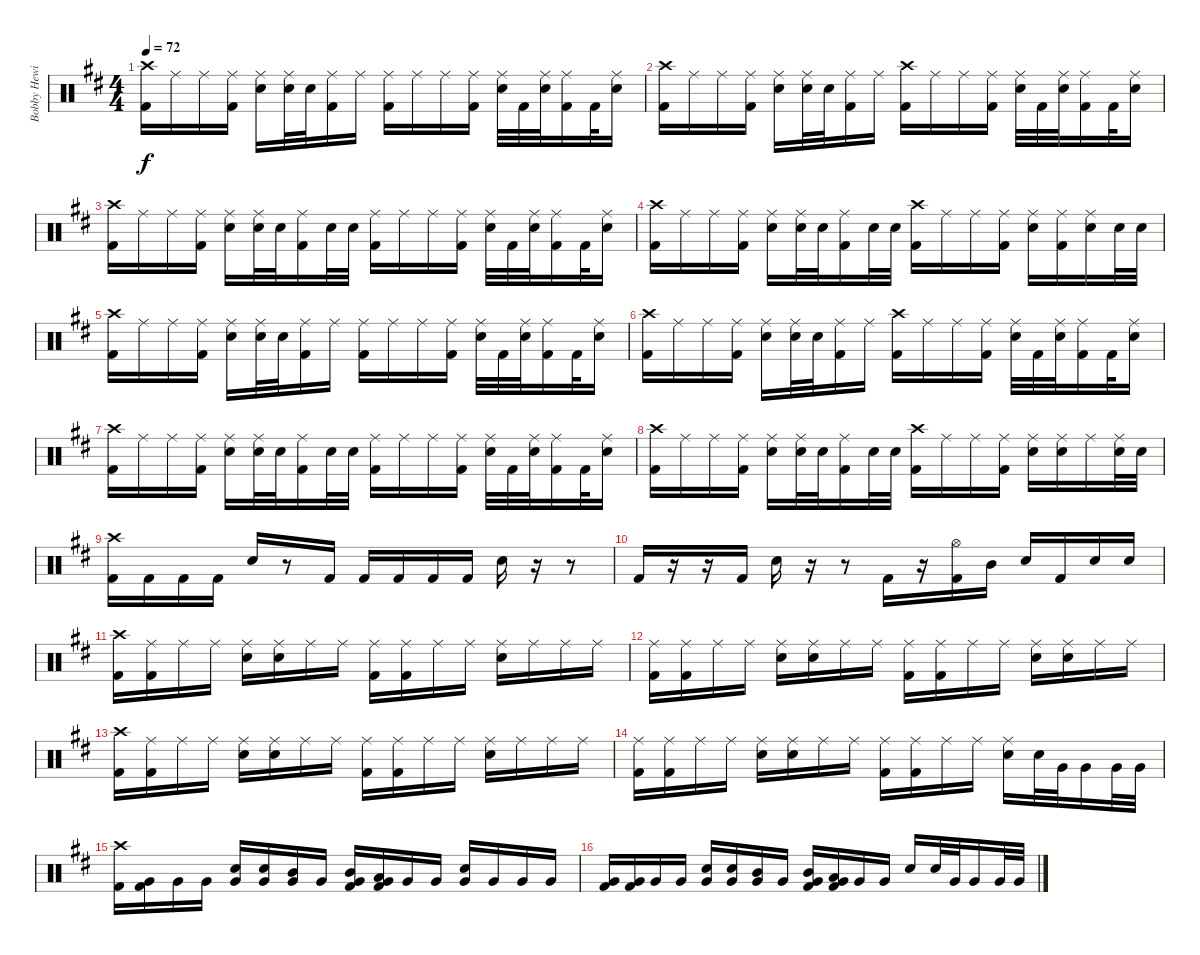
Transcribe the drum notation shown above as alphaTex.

\track ("Bobby Hewitt (Roland V-Drums)" "Bobby Hewi") {instrument percussion}
\staff {score}
\articulation defaults
\ts (4 4)
\tempo 72
\clef neutral
\ks d
("Crash high (hit)" "Kick (hit) 2").16{dy f} "Ride (middle)".16 "Ride (middle)".16 ("Ride (middle)" "Kick (hit) 2").16 ("Ride (middle)" "Electric Snare (hit)").16 ("Ride (middle)" "Electric Snare (hit)").32 "Electric Snare (hit)".32 ("Ride (middle)" "Kick (hit) 2").16 "Ride (middle)".16 ("Ride (middle)" "Kick (hit) 2").16 "Ride (middle)".16 "Ride (middle)".16 ("Ride (middle)" "Kick (hit) 2").16 ("Ride (middle)" "Electric Snare (hit)").32 "Kick (hit) 2".32 ("Ride (middle)" "Electric Snare (hit)").32 ("Ride (middle)" "Kick (hit) 2").16 "Kick (hit) 2".32 ("Ride (middle)" "Electric Snare (hit)").16 |
("Crash high (hit)" "Kick (hit) 2").16 "Ride (middle)".16 "Ride (middle)".16 ("Ride (middle)" "Kick (hit) 2").16 ("Ride (middle)" "Electric Snare (hit)").16 ("Ride (middle)" "Electric Snare (hit)").32 "Electric Snare (hit)".32 ("Ride (middle)" "Kick (hit) 2").16 "Ride (middle)".16 ("Crash high (hit)" "Kick (hit) 2").16 "Ride (middle)".16 "Ride (middle)".16 ("Ride (middle)" "Kick (hit) 2").16 ("Ride (middle)" "Electric Snare (hit)").32 "Kick (hit) 2".32 ("Ride (middle)" "Electric Snare (hit)").32 ("Ride (middle)" "Kick (hit) 2").16 "Kick (hit) 2".32 ("Ride (middle)" "Electric Snare (hit)").16 |
("Crash high (hit)" "Kick (hit) 2").16 "Ride (middle)".16 "Ride (middle)".16 ("Ride (middle)" "Kick (hit) 2").16 ("Ride (middle)" "Electric Snare (hit)").16 ("Ride (middle)" "Electric Snare (hit)").32 "Electric Snare (hit)".32 ("Ride (middle)" "Kick (hit) 2").16 "Electric Snare (hit)".32 "Electric Snare (hit)".32 ("Ride (middle)" "Kick (hit) 2").16 "Ride (middle)".16 "Ride (middle)".16 ("Ride (middle)" "Kick (hit) 2").16 ("Ride (middle)" "Electric Snare (hit)").32 "Kick (hit) 2".32 ("Ride (middle)" "Electric Snare (hit)").32 ("Ride (middle)" "Kick (hit) 2").16 "Kick (hit) 2".32 ("Ride (middle)" "Electric Snare (hit)").16 |
("Crash high (hit)" "Kick (hit) 2").16 "Ride (middle)".16 "Ride (middle)".16 ("Ride (middle)" "Kick (hit) 2").16 ("Ride (middle)" "Electric Snare (hit)").16 ("Ride (middle)" "Electric Snare (hit)").32 "Electric Snare (hit)".32 ("Ride (middle)" "Kick (hit) 2").16 "Electric Snare (hit)".32 "Electric Snare (hit)".32 ("Crash high (hit)" "Kick (hit) 2").16 "Ride (middle)".16 "Ride (middle)".16 ("Ride (middle)" "Kick (hit) 2").16 ("Ride (middle)" "Electric Snare (hit)").16 ("Ride (middle)" "Kick (hit) 2").16 ("Ride (middle)" "Electric Snare (hit)").16 "Electric Snare (hit)".32 "Electric Snare (hit)".32 |
("Crash high (hit)" "Kick (hit) 2").16 "Ride (middle)".16 "Ride (middle)".16 ("Ride (middle)" "Kick (hit) 2").16 ("Ride (middle)" "Electric Snare (hit)").16 ("Ride (middle)" "Electric Snare (hit)").32 "Electric Snare (hit)".32 ("Ride (middle)" "Kick (hit) 2").16 "Ride (middle)".16 ("Ride (middle)" "Kick (hit) 2").16 "Ride (middle)".16 "Ride (middle)".16 ("Ride (middle)" "Kick (hit) 2").16 ("Ride (middle)" "Electric Snare (hit)").32 "Kick (hit) 2".32 ("Ride (middle)" "Electric Snare (hit)").32 ("Ride (middle)" "Kick (hit) 2").16 "Kick (hit) 2".32 ("Ride (middle)" "Electric Snare (hit)").16 |
("Crash high (hit)" "Kick (hit) 2").16 "Ride (middle)".16 "Ride (middle)".16 ("Ride (middle)" "Kick (hit) 2").16 ("Ride (middle)" "Electric Snare (hit)").16 ("Ride (middle)" "Electric Snare (hit)").32 "Electric Snare (hit)".32 ("Ride (middle)" "Kick (hit) 2").16 "Ride (middle)".16 ("Crash high (hit)" "Kick (hit) 2").16 "Ride (middle)".16 "Ride (middle)".16 ("Ride (middle)" "Kick (hit) 2").16 ("Ride (middle)" "Electric Snare (hit)").32 "Kick (hit) 2".32 ("Ride (middle)" "Electric Snare (hit)").32 ("Ride (middle)" "Kick (hit) 2").16 "Kick (hit) 2".32 ("Ride (middle)" "Electric Snare (hit)").16 |
("Crash high (hit)" "Kick (hit) 2").16 "Ride (middle)".16 "Ride (middle)".16 ("Ride (middle)" "Kick (hit) 2").16 ("Ride (middle)" "Electric Snare (hit)").16 ("Ride (middle)" "Electric Snare (hit)").32 "Electric Snare (hit)".32 ("Ride (middle)" "Kick (hit) 2").16 "Electric Snare (hit)".32 "Electric Snare (hit)".32 ("Ride (middle)" "Kick (hit) 2").16 "Ride (middle)".16 "Ride (middle)".16 ("Ride (middle)" "Kick (hit) 2").16 ("Ride (middle)" "Electric Snare (hit)").32 "Kick (hit) 2".32 ("Ride (middle)" "Electric Snare (hit)").32 ("Ride (middle)" "Kick (hit) 2").16 "Kick (hit) 2".32 ("Ride (middle)" "Electric Snare (hit)").16 |
("Crash high (hit)" "Kick (hit) 2").16 "Ride (middle)".16 "Ride (middle)".16 ("Ride (middle)" "Kick (hit) 2").16 ("Ride (middle)" "Electric Snare (hit)").16 ("Ride (middle)" "Electric Snare (hit)").32 "Electric Snare (hit)".32 ("Ride (middle)" "Kick (hit) 2").16 "Electric Snare (hit)".32 "Electric Snare (hit)".32 ("Crash high (hit)" "Kick (hit) 2").16 "Ride (middle)".16 "Ride (middle)".16 ("Ride (middle)" "Kick (hit) 2").16 ("Ride (middle)" "Electric Snare (hit)").16 ("Ride (middle)" "Electric Snare (hit)").16 "Ride (middle)".16 ("Ride (middle)" "Electric Snare (hit)").32 "Electric Snare (hit)".32 |
("Crash high (hit)" "Kick (hit) 2").16 "Kick (hit) 2".16 "Kick (hit) 2".16 "Kick (hit) 2".16 "Electric Snare (hit)".16 r.8 "Kick (hit) 2".16 "Kick (hit) 2".16 "Kick (hit) 2".16 "Kick (hit) 2".16 "Kick (hit) 2".16 "Electric Snare (hit)".16 r.16 r.8 |
"Kick (hit) 2".16 r.16 r.16 "Kick (hit) 2".16 "Electric Snare (hit)".16 r.16 r.8 "Kick (hit) 2".16 r.16 ("Hi-Hat (open)" "Kick (hit) 2").16 "Mid Tom (hit)".16 "Electric Snare (hit)".16 "Kick (hit) 2".16 "Electric Snare (hit)".16 "Electric Snare (hit)".16 |
("Crash high (hit)" "Kick (hit) 2").16 ("Ride (middle)" "Kick (hit) 2").16 "Ride (middle)".16 "Ride (middle)".16 ("Ride (middle)" "Electric Snare (hit)").16 ("Ride (middle)" "Electric Snare (hit)").16 "Ride (middle)".16 "Ride (middle)".16 ("Ride (middle)" "Kick (hit) 2").16 ("Ride (middle)" "Kick (hit) 2").16 "Ride (middle)".16 "Ride (middle)".16 ("Ride (middle)" "Electric Snare (hit)").16 "Ride (middle)".16 "Ride (middle)".16 "Ride (middle)".16 |
("Ride (middle)" "Kick (hit) 2").16 ("Ride (middle)" "Kick (hit) 2").16 "Ride (middle)".16 "Ride (middle)".16 ("Ride (middle)" "Electric Snare (hit)").16 ("Ride (middle)" "Electric Snare (hit)").16 "Ride (middle)".16 "Ride (middle)".16 ("Ride (middle)" "Kick (hit) 2").16 ("Ride (middle)" "Kick (hit) 2").16 "Ride (middle)".16 "Ride (middle)".16 ("Ride (middle)" "Electric Snare (hit)").16 ("Ride (middle)" "Electric Snare (hit)").16 "Ride (middle)".16 "Ride (middle)".16 |
("Crash high (hit)" "Kick (hit) 2").16 ("Ride (middle)" "Kick (hit) 2").16 "Ride (middle)".16 "Ride (middle)".16 ("Ride (middle)" "Electric Snare (hit)").16 ("Ride (middle)" "Electric Snare (hit)").16 "Ride (middle)".16 "Ride (middle)".16 ("Ride (middle)" "Kick (hit) 2").16 ("Ride (middle)" "Kick (hit) 2").16 "Ride (middle)".16 "Ride (middle)".16 ("Ride (middle)" "Electric Snare (hit)").16 "Ride (middle)".16 "Ride (middle)".16 "Ride (middle)".16 |
("Ride (middle)" "Kick (hit) 2").16 ("Ride (middle)" "Kick (hit) 2").16 "Ride (middle)".16 "Ride (middle)".16 ("Ride (middle)" "Electric Snare (hit)").16 ("Ride (middle)" "Electric Snare (hit)").16 "Ride (middle)".16 "Ride (middle)".16 ("Ride (middle)" "Kick (hit) 2").16 ("Ride (middle)" "Kick (hit) 2").16 "Ride (middle)".16 "Ride (middle)".16 ("Ride (middle)" "Electric Snare (hit)").16 "Electric Snare (hit)".32 "Very Low Tom (hit)".32 "Very Low Tom (hit)".16 "Very Low Tom (hit)".32 "Very Low Tom (hit)".32 |
("Crash high (hit)" "Kick (hit) 2").16 ("Very Low Tom (hit)" "Kick (hit) 2").16 "Very Low Tom (hit)".16 "Very Low Tom (hit)".16 ("Very Low Tom (hit)" "Electric Snare (hit)").16 ("Very Low Tom (hit)" "Electric Snare (hit)").16 ("Mid Tom (hit)" "Very Low Tom (hit)").16 "Very Low Tom (hit)".16 ("Mid Tom (hit)" "Very Low Tom (hit)" "Kick (hit) 2").16 ("Low Tom (hit)" "Very Low Tom (hit)" "Kick (hit) 2").16 "Very Low Tom (hit)".16 "Very Low Tom (hit)".16 ("Very Low Tom (hit)" "Electric Snare (hit)").16 "Very Low Tom (hit)".16 "Very Low Tom (hit)".16 "Very Low Tom (hit)".16 |
("Very Low Tom (hit)" "Kick (hit) 2").16 ("Very Low Tom (hit)" "Kick (hit) 2").16 "Very Low Tom (hit)".16 "Very Low Tom (hit)".16 ("Very Low Tom (hit)" "Electric Snare (hit)").16 ("Very Low Tom (hit)" "Electric Snare (hit)").16 ("Mid Tom (hit)" "Very Low Tom (hit)").16 "Very Low Tom (hit)".16 ("Mid Tom (hit)" "Very Low Tom (hit)" "Kick (hit) 2").16 ("Low Tom (hit)" "Very Low Tom (hit)" "Kick (hit) 2").16 "Very Low Tom (hit)".16 "Very Low Tom (hit)".16 "Electric Snare (hit)".16 "Electric Snare (hit)".32 "Very Low Tom (hit)".32 "Very Low Tom (hit)".16 "Very Low Tom (hit)".32 "Very Low Tom (hit)".32
